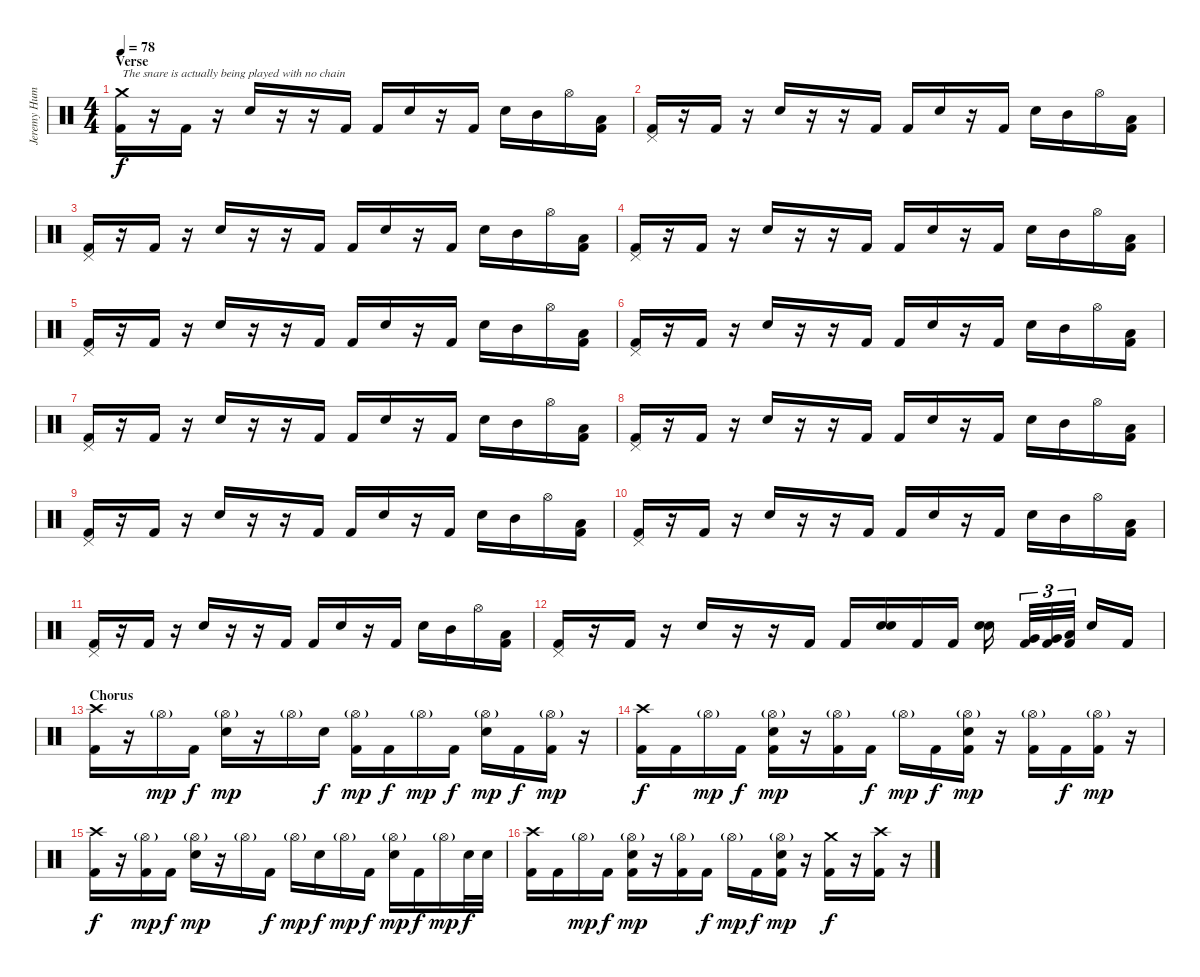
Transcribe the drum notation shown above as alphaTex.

\track ("Jeremy Hummel" "Jeremy Hum") {instrument percussion}
\staff {score}
\articulation defaults
\ts (4 4)
\section ("" "Verse")
\tempo 78
\clef neutral
\ks c
("Crash medium (hit)" "Kick (hit) 2").16{txt "The snare is actually being played with no chain " dy f} r.16 "Kick (hit) 2".16 r.16 "Snare (hit) 2".16 r.16 r.16 "Kick (hit) 2".16 "Kick (hit) 2".16 "Snare (hit) 2".16 r.16 "Kick (hit) 2".16 "Snare (hit) 2".16 "Mid Tom (hit)".16 "Hi-Hat (open)".16 ("Low Tom (hit)" "Kick (hit) 2").16 |
("Pedal Hi-Hat (hit)" "Kick (hit) 2").16 r.16 "Kick (hit) 2".16 r.16 "Snare (hit) 2".16 r.16 r.16 "Kick (hit) 2".16 "Kick (hit) 2".16 "Snare (hit) 2".16 r.16 "Kick (hit) 2".16 "Snare (hit) 2".16 "Mid Tom (hit)".16 "Hi-Hat (open)".16 ("Low Tom (hit)" "Kick (hit) 2").16 |
("Pedal Hi-Hat (hit)" "Kick (hit) 2").16 r.16 "Kick (hit) 2".16 r.16 "Snare (hit) 2".16 r.16 r.16 "Kick (hit) 2".16 "Kick (hit) 2".16 "Snare (hit) 2".16 r.16 "Kick (hit) 2".16 "Snare (hit) 2".16 "Mid Tom (hit)".16 "Hi-Hat (open)".16 ("Low Tom (hit)" "Kick (hit) 2").16 |
("Pedal Hi-Hat (hit)" "Kick (hit) 2").16 r.16 "Kick (hit) 2".16 r.16 "Snare (hit) 2".16 r.16 r.16 "Kick (hit) 2".16 "Kick (hit) 2".16 "Snare (hit) 2".16 r.16 "Kick (hit) 2".16 "Snare (hit) 2".16 "Mid Tom (hit)".16 "Hi-Hat (open)".16 ("Low Tom (hit)" "Kick (hit) 2").16 |
("Pedal Hi-Hat (hit)" "Kick (hit) 2").16 r.16 "Kick (hit) 2".16 r.16 "Snare (hit) 2".16 r.16 r.16 "Kick (hit) 2".16 "Kick (hit) 2".16 "Snare (hit) 2".16 r.16 "Kick (hit) 2".16 "Snare (hit) 2".16 "Mid Tom (hit)".16 "Hi-Hat (open)".16 ("Low Tom (hit)" "Kick (hit) 2").16 |
("Pedal Hi-Hat (hit)" "Kick (hit) 2").16 r.16 "Kick (hit) 2".16 r.16 "Snare (hit) 2".16 r.16 r.16 "Kick (hit) 2".16 "Kick (hit) 2".16 "Snare (hit) 2".16 r.16 "Kick (hit) 2".16 "Snare (hit) 2".16 "Mid Tom (hit)".16 "Hi-Hat (open)".16 ("Low Tom (hit)" "Kick (hit) 2").16 |
("Pedal Hi-Hat (hit)" "Kick (hit) 2").16 r.16 "Kick (hit) 2".16 r.16 "Snare (hit) 2".16 r.16 r.16 "Kick (hit) 2".16 "Kick (hit) 2".16 "Snare (hit) 2".16 r.16 "Kick (hit) 2".16 "Snare (hit) 2".16 "Mid Tom (hit)".16 "Hi-Hat (open)".16 ("Low Tom (hit)" "Kick (hit) 2").16 |
("Pedal Hi-Hat (hit)" "Kick (hit) 2").16 r.16 "Kick (hit) 2".16 r.16 "Snare (hit) 2".16 r.16 r.16 "Kick (hit) 2".16 "Kick (hit) 2".16 "Snare (hit) 2".16 r.16 "Kick (hit) 2".16 "Snare (hit) 2".16 "Mid Tom (hit)".16 "Hi-Hat (open)".16 ("Low Tom (hit)" "Kick (hit) 2").16 |
("Pedal Hi-Hat (hit)" "Kick (hit) 2").16 r.16 "Kick (hit) 2".16 r.16 "Snare (hit) 2".16 r.16 r.16 "Kick (hit) 2".16 "Kick (hit) 2".16 "Snare (hit) 2".16 r.16 "Kick (hit) 2".16 "Snare (hit) 2".16 "Mid Tom (hit)".16 "Hi-Hat (open)".16 ("Low Tom (hit)" "Kick (hit) 2").16 |
("Pedal Hi-Hat (hit)" "Kick (hit) 2").16 r.16 "Kick (hit) 2".16 r.16 "Snare (hit) 2".16 r.16 r.16 "Kick (hit) 2".16 "Kick (hit) 2".16 "Snare (hit) 2".16 r.16 "Kick (hit) 2".16 "Snare (hit) 2".16 "Mid Tom (hit)".16 "Hi-Hat (open)".16 ("Low Tom (hit)" "Kick (hit) 2").16 |
("Pedal Hi-Hat (hit)" "Kick (hit) 2").16 r.16 "Kick (hit) 2".16 r.16 "Snare (hit) 2".16 r.16 r.16 "Kick (hit) 2".16 "Kick (hit) 2".16 "Snare (hit) 2".16 r.16 "Kick (hit) 2".16 "Snare (hit) 2".16 "Mid Tom (hit)".16 "Hi-Hat (open)".16 ("Low Tom (hit)" "Kick (hit) 2").16 |
("Pedal Hi-Hat (hit)" "Kick (hit) 2").16 r.16 "Kick (hit) 2".16 r.16 "Snare (hit) 2".16 r.16 r.16 "Kick (hit) 2".16 "Kick (hit) 2".16 ("Snare (hit) 2" "Snare (hit) 2").16 "Kick (hit) 2".16 "Kick (hit) 2".16 ("Snare (hit) 2" "Snare (hit) 2").16 ("Very Low Tom (hit)" "Kick (hit) 2").32{tu (3 2)} ("Very Low Tom (hit)" "Kick (hit) 2").32{tu (3 2)} ("Low Tom (hit)" "Kick (hit) 2").32{tu (3 2)} "Snare (hit) 2".16 "Kick (hit) 2".16 |
\section ("" "Chorus")
("Crash high (hit)" "Kick (hit) 2").16 r.16 "Hi-Hat (open)"{g}.16{dy mp} "Kick (hit) 2".16{dy f} ("Hi-Hat (open)"{g} "Snare (hit) 2").16{dy mp} r.16 "Hi-Hat (open)"{g}.16 "Snare (hit) 2".16{dy f} ("Hi-Hat (open)"{g} "Kick (hit) 2").16{dy mp} "Kick (hit) 2".16{dy f} "Hi-Hat (open)"{g}.16{dy mp} "Kick (hit) 2".16{dy f} ("Hi-Hat (open)"{g} "Snare (hit) 2").16{dy mp} "Kick (hit) 2".16{dy f} ("Hi-Hat (open)"{g} "Kick (hit) 2").16{dy mp} r.16 |
("Crash high (hit)" "Kick (hit) 2").16{dy f} "Kick (hit) 2".16 "Hi-Hat (open)"{g}.16{dy mp} "Kick (hit) 2".16{dy f} ("Hi-Hat (open)"{g} "Snare (hit) 2" "Kick (hit) 2").16{dy mp} r.16 ("Hi-Hat (open)"{g} "Kick (hit) 2").16 "Kick (hit) 2".16{dy f} "Hi-Hat (open)"{g}.16{dy mp} "Kick (hit) 2".16{dy f} ("Hi-Hat (open)"{g} "Snare (hit) 2" "Kick (hit) 2").16{dy mp} r.16 ("Hi-Hat (open)"{g} "Kick (hit) 2").16 "Kick (hit) 2".16{dy f} ("Hi-Hat (open)"{g} "Kick (hit) 2").16{dy mp} r.16 |
("Crash high (hit)" "Kick (hit) 2").16{dy f} r.16 ("Hi-Hat (open)"{g} "Kick (hit) 2").16{dy mp} "Kick (hit) 2".16{dy f} ("Hi-Hat (open)"{g} "Snare (hit) 2").16{dy mp} r.16 "Hi-Hat (open)"{g}.16 "Kick (hit) 2".16{dy f} "Hi-Hat (open)"{g}.16{dy mp} "Snare (hit) 2".16{dy f} "Hi-Hat (open)"{g}.16{dy mp} "Kick (hit) 2".16{dy f} ("Hi-Hat (open)"{g} "Snare (hit) 2").16{dy mp} "Kick (hit) 2".16{dy f} "Hi-Hat (open)"{g}.16{dy mp} "Snare (hit) 2".32{dy f} "Snare (hit) 2".32 |
("Crash high (hit)" "Kick (hit) 2").16 "Kick (hit) 2".16 "Hi-Hat (open)"{g}.16{dy mp} "Kick (hit) 2".16{dy f} ("Hi-Hat (open)"{g} "Snare (hit) 2" "Kick (hit) 2").16{dy mp} r.16 ("Hi-Hat (open)"{g} "Kick (hit) 2").16 "Kick (hit) 2".16{dy f} "Hi-Hat (open)"{g}.16{dy mp} "Kick (hit) 2".16{dy f} ("Hi-Hat (open)"{g} "Snare (hit) 2" "Kick (hit) 2").16{dy mp} r.16 ("Crash medium (hit)" "Kick (hit) 2").16{dy f} r.16 ("Crash high (hit)" "Kick (hit) 2").16 r.16
